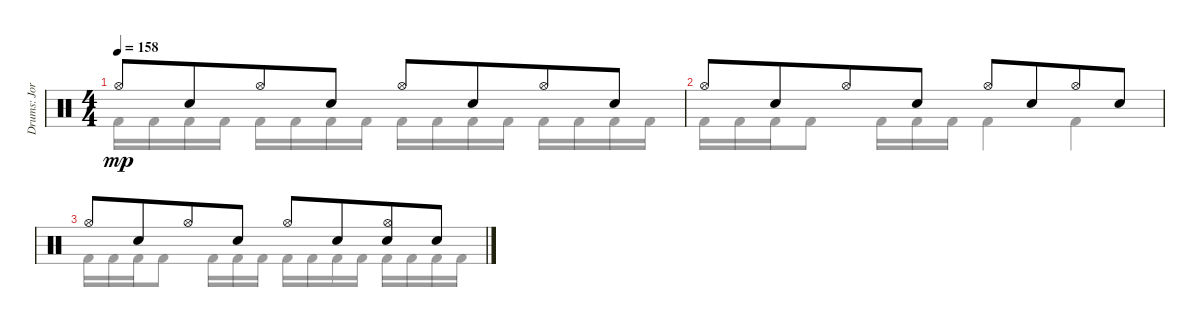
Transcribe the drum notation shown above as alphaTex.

\track ("Drums: Jorg" "Drums: Jor") {instrument percussion}
\staff {score}
\articulation defaults
\voice
\ts (4 4)
\tempo 158
\clef neutral
\ks c "Hi-Hat (open)".8{dy mp} "Snare (hit) 2".8{beam merge} "Hi-Hat (open)".8 "Snare (hit) 2".8 "Hi-Hat (open)".8 "Snare (hit) 2".8{beam merge} "Hi-Hat (open)".8 "Snare (hit) 2".8
|
"Hi-Hat (open)".8 "Snare (hit) 2".8{beam merge} "Hi-Hat (open)".8 "Snare (hit) 2".8 "Hi-Hat (open)".8 "Snare (hit) 2".8{beam merge} "Hi-Hat (open)".8 "Snare (hit) 2".8 |
"Hi-Hat (open)".8 "Snare (hit) 2".8{beam merge} "Hi-Hat (open)".8 "Snare (hit) 2".8 "Hi-Hat (open)".8 "Snare (hit) 2".8{beam merge} ("Hi-Hat (open)" "Snare (hit) 2").8 "Snare (hit) 2".8
\voice
\clef neutral
\ottava regular
\simile none
\ks c "Kick (hit) 2".16{dy mp} "Kick (hit) 2".16 "Kick (hit) 2".16 "Kick (hit) 2".16 "Kick (hit) 2".16 "Kick (hit) 2".16 "Kick (hit) 2".16 "Kick (hit) 2".16 "Kick (hit) 2".16 "Kick (hit) 2".16 "Kick (hit) 2".16 "Kick (hit) 2".16 "Kick (hit) 2".16 "Kick (hit) 2".16 "Kick (hit) 2".16 "Kick (hit) 2".16
|
"Kick (hit) 2".16 "Kick (hit) 2".16 "Kick (hit) 2".16 "Kick (hit) 2".8 "Kick (hit) 2".16 "Kick (hit) 2".16 "Kick (hit) 2".16 "Kick (hit) 2".4 "Kick (hit) 2".4 |
"Kick (hit) 2".16 "Kick (hit) 2".16 "Kick (hit) 2".16 "Kick (hit) 2".8 "Kick (hit) 2".16 "Kick (hit) 2".16 "Kick (hit) 2".16 "Kick (hit) 2".16 "Kick (hit) 2".16 "Kick (hit) 2".16 "Kick (hit) 2".16 "Kick (hit) 2".16 "Kick (hit) 2".16 "Kick (hit) 2".16 "Kick (hit) 2".16
